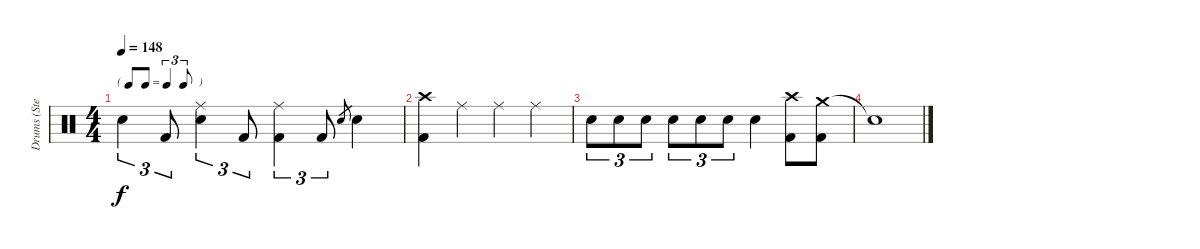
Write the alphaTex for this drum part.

\track ("Drums (Steven)" "Drums (Ste") {instrument percussion}
\staff {score}
\articulation defaults
\ts (4 4)
\tf triplet8th
\tempo 148
\clef neutral
\ks c "Snare (hit)"{t}.4{tu (3 2) dy f} "Kick (hit) 2".8{tu (3 2)}
("Ride (middle)" "Snare (hit) 2").4{tu (3 2)} "Kick (hit) 2".8{tu (3 2)} ("Ride (middle)" "Kick (hit) 2").4{tu (3 2)} "Kick (hit) 2".8{tu (3 2)} "Snare (hit) 2".8{gr} "Snare (hit) 2".4 |
("Crash high (hit)" "Kick (hit) 2").4 "Ride (middle)".4 "Ride (middle)".4 "Ride (middle)".4 |
"Snare (hit) 2".8{tu (3 2)} "Snare (hit) 2".8{tu (3 2)} "Snare (hit) 2".8{tu (3 2)} "Snare (hit) 2".8{tu (3 2)} "Snare (hit) 2".8{tu (3 2)} "Snare (hit) 2".8{tu (3 2)} "Snare (hit) 2".4 ("Crash high (hit)" "Kick (hit) 2").8 ("Crash medium (hit)" "Kick (hit) 2").8 |
"Snare (hit)"{t}.1
